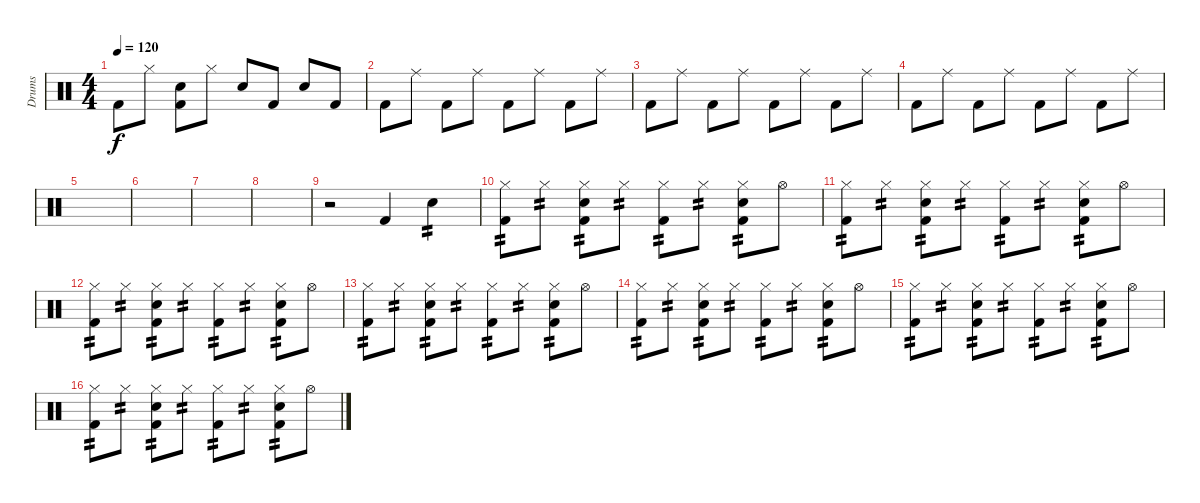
\track ("Drums" "Drums") {instrument percussion}
\staff {score}
\articulation defaults
\ts (4 4)
\tempo 120
\clef neutral
\ks c "Kick (hit) 2".8{dy f} "Hi-Hat (closed)".8
("Snare (hit) 2" "Kick (hit) 2").8 "Hi-Hat (closed)".8 "Snare (hit) 2".8 "Kick (hit) 2".8 "Snare (hit) 2".8 "Kick (hit) 2".8 |
"Kick (hit) 2".8 "Ride (middle)".8 "Kick (hit) 2".8 "Ride (middle)".8 "Kick (hit) 2".8 "Ride (middle)".8 "Kick (hit) 2".8 "Ride (middle)".8 |
"Kick (hit) 2".8 "Ride (middle)".8 "Kick (hit) 2".8 "Ride (middle)".8 "Kick (hit) 2".8 "Ride (middle)".8 "Kick (hit) 2".8 "Ride (middle)".8 |
"Kick (hit) 2".8 "Ride (middle)".8 "Kick (hit) 2".8 "Ride (middle)".8 "Kick (hit) 2".8 "Ride (middle)".8 "Kick (hit) 2".8 "Ride (middle)".8 |
|
|
|
|
r.2 "Kick (hit) 2".4 "Snare (hit) 2".4{tp 2} |
("Hi-Hat (closed)" "Kick (hit) 2").8{tp 2} "Hi-Hat (closed)".8{tp 2} ("Hi-Hat (closed)" "Snare (hit) 2" "Kick (hit) 2").8{tp 2} "Hi-Hat (closed)".8{tp 2} ("Hi-Hat (closed)" "Kick (hit) 2").8{tp 2} "Hi-Hat (closed)".8{tp 2} ("Hi-Hat (closed)" "Snare (hit) 2" "Kick (hit) 2").8{tp 2} "Hi-Hat (open)".8 |
("Hi-Hat (closed)" "Kick (hit) 2").8{tp 2} "Hi-Hat (closed)".8{tp 2} ("Hi-Hat (closed)" "Snare (hit) 2" "Kick (hit) 2").8{tp 2} "Hi-Hat (closed)".8{tp 2} ("Hi-Hat (closed)" "Kick (hit) 2").8{tp 2} "Hi-Hat (closed)".8{tp 2} ("Hi-Hat (closed)" "Snare (hit) 2" "Kick (hit) 2").8{tp 2} "Hi-Hat (open)".8 |
("Hi-Hat (closed)" "Kick (hit) 2").8{tp 2} "Hi-Hat (closed)".8{tp 2} ("Hi-Hat (closed)" "Snare (hit) 2" "Kick (hit) 2").8{tp 2} "Hi-Hat (closed)".8{tp 2} ("Hi-Hat (closed)" "Kick (hit) 2").8{tp 2} "Hi-Hat (closed)".8{tp 2} ("Hi-Hat (closed)" "Snare (hit) 2" "Kick (hit) 2").8{tp 2} "Hi-Hat (open)".8 |
("Hi-Hat (closed)" "Kick (hit) 2").8{tp 2} "Hi-Hat (closed)".8{tp 2} ("Hi-Hat (closed)" "Snare (hit) 2" "Kick (hit) 2").8{tp 2} "Hi-Hat (closed)".8{tp 2} ("Hi-Hat (closed)" "Kick (hit) 2").8{tp 2} "Hi-Hat (closed)".8{tp 2} ("Hi-Hat (closed)" "Snare (hit) 2" "Kick (hit) 2").8{tp 2} "Hi-Hat (open)".8 |
("Hi-Hat (closed)" "Kick (hit) 2").8{tp 2} "Hi-Hat (closed)".8{tp 2} ("Hi-Hat (closed)" "Snare (hit) 2" "Kick (hit) 2").8{tp 2} "Hi-Hat (closed)".8{tp 2} ("Hi-Hat (closed)" "Kick (hit) 2").8{tp 2} "Hi-Hat (closed)".8{tp 2} ("Hi-Hat (closed)" "Snare (hit) 2" "Kick (hit) 2").8{tp 2} "Hi-Hat (open)".8 |
("Hi-Hat (closed)" "Kick (hit) 2").8{tp 2} "Hi-Hat (closed)".8{tp 2} ("Hi-Hat (closed)" "Snare (hit) 2" "Kick (hit) 2").8{tp 2} "Hi-Hat (closed)".8{tp 2} ("Hi-Hat (closed)" "Kick (hit) 2").8{tp 2} "Hi-Hat (closed)".8{tp 2} ("Hi-Hat (closed)" "Snare (hit) 2" "Kick (hit) 2").8{tp 2} "Hi-Hat (open)".8 |
("Hi-Hat (closed)" "Kick (hit) 2").8{tp 2} "Hi-Hat (closed)".8{tp 2} ("Hi-Hat (closed)" "Snare (hit) 2" "Kick (hit) 2").8{tp 2} "Hi-Hat (closed)".8{tp 2} ("Hi-Hat (closed)" "Kick (hit) 2").8{tp 2} "Hi-Hat (closed)".8{tp 2} ("Hi-Hat (closed)" "Snare (hit) 2" "Kick (hit) 2").8{tp 2} "Hi-Hat (open)".8
